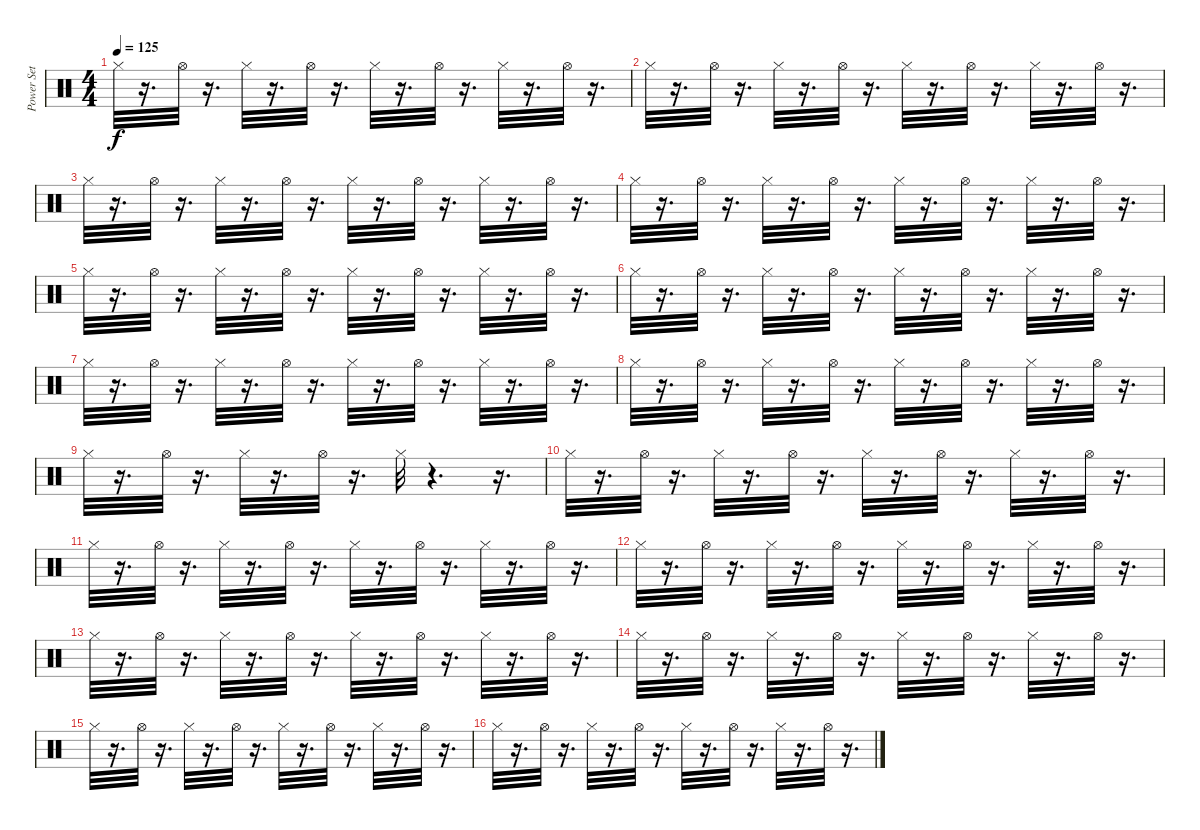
\track ("Power Set" "Power Set") {instrument percussion}
\staff {score}
\articulation defaults
\ts (4 4)
\tempo 125
\clef neutral
\ks c "Hi-Hat (closed)".32{dy f}
r.16{d} "Hi-Hat (open)".32 r.16{d} "Hi-Hat (closed)".32 r.16{d} "Hi-Hat (open)".32 r.16{d} "Hi-Hat (closed)".32 r.16{d} "Hi-Hat (open)".32 r.16{d} "Hi-Hat (closed)".32 r.16{d} "Hi-Hat (open)".32 r.16{d} |
"Hi-Hat (closed)".32 r.16{d} "Hi-Hat (open)".32 r.16{d} "Hi-Hat (closed)".32 r.16{d} "Hi-Hat (open)".32 r.16{d} "Hi-Hat (closed)".32 r.16{d} "Hi-Hat (open)".32 r.16{d} "Hi-Hat (closed)".32 r.16{d} "Hi-Hat (open)".32 r.16{d} |
"Hi-Hat (closed)".32 r.16{d} "Hi-Hat (open)".32 r.16{d} "Hi-Hat (closed)".32 r.16{d} "Hi-Hat (open)".32 r.16{d} "Hi-Hat (closed)".32 r.16{d} "Hi-Hat (open)".32 r.16{d} "Hi-Hat (closed)".32 r.16{d} "Hi-Hat (open)".32 r.16{d} |
"Hi-Hat (closed)".32 r.16{d} "Hi-Hat (open)".32 r.16{d} "Hi-Hat (closed)".32 r.16{d} "Hi-Hat (open)".32 r.16{d} "Hi-Hat (closed)".32 r.16{d} "Hi-Hat (open)".32 r.16{d} "Hi-Hat (closed)".32 r.16{d} "Hi-Hat (open)".32 r.16{d} |
"Hi-Hat (closed)".32 r.16{d} "Hi-Hat (open)".32 r.16{d} "Hi-Hat (closed)".32 r.16{d} "Hi-Hat (open)".32 r.16{d} "Hi-Hat (closed)".32 r.16{d} "Hi-Hat (open)".32 r.16{d} "Hi-Hat (closed)".32 r.16{d} "Hi-Hat (open)".32 r.16{d} |
"Hi-Hat (closed)".32 r.16{d} "Hi-Hat (open)".32 r.16{d} "Hi-Hat (closed)".32 r.16{d} "Hi-Hat (open)".32 r.16{d} "Hi-Hat (closed)".32 r.16{d} "Hi-Hat (open)".32 r.16{d} "Hi-Hat (closed)".32 r.16{d} "Hi-Hat (open)".32 r.16{d} |
"Hi-Hat (closed)".32 r.16{d} "Hi-Hat (open)".32 r.16{d} "Hi-Hat (closed)".32 r.16{d} "Hi-Hat (open)".32 r.16{d} "Hi-Hat (closed)".32 r.16{d} "Hi-Hat (open)".32 r.16{d} "Hi-Hat (closed)".32 r.16{d} "Hi-Hat (open)".32 r.16{d} |
"Hi-Hat (closed)".32 r.16{d} "Hi-Hat (open)".32 r.16{d} "Hi-Hat (closed)".32 r.16{d} "Hi-Hat (open)".32 r.16{d} "Hi-Hat (closed)".32 r.16{d} "Hi-Hat (open)".32 r.16{d} "Hi-Hat (closed)".32 r.16{d} "Hi-Hat (open)".32 r.16{d} |
"Hi-Hat (closed)".32 r.16{d} "Hi-Hat (open)".32 r.16{d} "Hi-Hat (closed)".32 r.16{d} "Hi-Hat (open)".32 r.16{d} "Hi-Hat (closed)".32 r.4{d} r.16{d} |
"Hi-Hat (closed)".32 r.16{d} "Hi-Hat (open)".32 r.16{d} "Hi-Hat (closed)".32 r.16{d} "Hi-Hat (open)".32 r.16{d} "Hi-Hat (closed)".32 r.16{d} "Hi-Hat (open)".32 r.16{d} "Hi-Hat (closed)".32 r.16{d} "Hi-Hat (open)".32 r.16{d} |
"Hi-Hat (closed)".32 r.16{d} "Hi-Hat (open)".32 r.16{d} "Hi-Hat (closed)".32 r.16{d} "Hi-Hat (open)".32 r.16{d} "Hi-Hat (closed)".32 r.16{d} "Hi-Hat (open)".32 r.16{d} "Hi-Hat (closed)".32 r.16{d} "Hi-Hat (open)".32 r.16{d} |
"Hi-Hat (closed)".32 r.16{d} "Hi-Hat (open)".32 r.16{d} "Hi-Hat (closed)".32 r.16{d} "Hi-Hat (open)".32 r.16{d} "Hi-Hat (closed)".32 r.16{d} "Hi-Hat (open)".32 r.16{d} "Hi-Hat (closed)".32 r.16{d} "Hi-Hat (open)".32 r.16{d} |
"Hi-Hat (closed)".32 r.16{d} "Hi-Hat (open)".32 r.16{d} "Hi-Hat (closed)".32 r.16{d} "Hi-Hat (open)".32 r.16{d} "Hi-Hat (closed)".32 r.16{d} "Hi-Hat (open)".32 r.16{d} "Hi-Hat (closed)".32 r.16{d} "Hi-Hat (open)".32 r.16{d} |
"Hi-Hat (closed)".32 r.16{d} "Hi-Hat (open)".32 r.16{d} "Hi-Hat (closed)".32 r.16{d} "Hi-Hat (open)".32 r.16{d} "Hi-Hat (closed)".32 r.16{d} "Hi-Hat (open)".32 r.16{d} "Hi-Hat (closed)".32 r.16{d} "Hi-Hat (open)".32 r.16{d} |
"Hi-Hat (closed)".32 r.16{d} "Hi-Hat (open)".32 r.16{d} "Hi-Hat (closed)".32 r.16{d} "Hi-Hat (open)".32 r.16{d} "Hi-Hat (closed)".32 r.16{d} "Hi-Hat (open)".32 r.16{d} "Hi-Hat (closed)".32 r.16{d} "Hi-Hat (open)".32 r.16{d} |
"Hi-Hat (closed)".32 r.16{d} "Hi-Hat (open)".32 r.16{d} "Hi-Hat (closed)".32 r.16{d} "Hi-Hat (open)".32 r.16{d} "Hi-Hat (closed)".32 r.16{d} "Hi-Hat (open)".32 r.16{d} "Hi-Hat (closed)".32 r.16{d} "Hi-Hat (open)".32 r.16{d}
